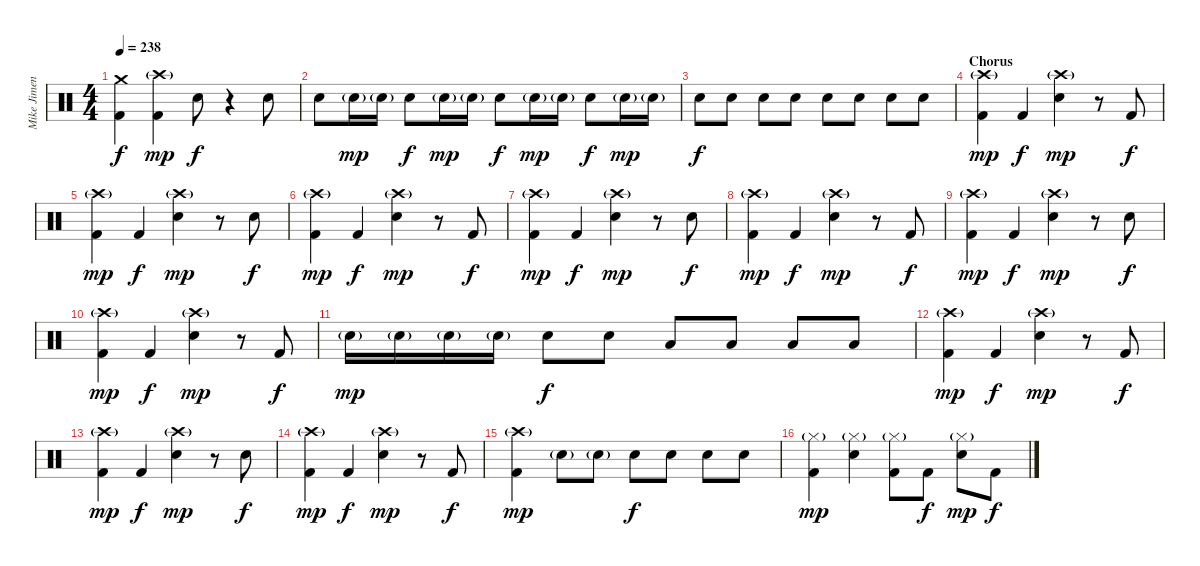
\track ("Mike Jimenez" "Mike Jimen") {instrument percussion}
\staff {score}
\articulation defaults
\ts (4 4)
\tempo 238
\clef neutral
\ks c
("Crash medium (hit)" "Kick (hit) 2").4{dy f} ("Crash high (hit)"{g} "Kick (hit) 2").4{dy mp} "Electric Snare (hit)".8{dy f} r.4 "Electric Snare (hit)".8 |
"Electric Snare (hit)".8 "Electric Snare (hit)"{g}.16{dy mp} "Electric Snare (hit)"{g}.16 "Electric Snare (hit)".8{dy f} "Electric Snare (hit)"{g}.16{dy mp} "Electric Snare (hit)"{g}.16 "Electric Snare (hit)".8{dy f} "Electric Snare (hit)"{g}.16{dy mp} "Electric Snare (hit)"{g}.16 "Electric Snare (hit)".8{dy f} "Electric Snare (hit)"{g}.16{dy mp} "Electric Snare (hit)"{g}.16 |
"Electric Snare (hit)".8{dy f} "Electric Snare (hit)".8 "Electric Snare (hit)".8 "Electric Snare (hit)".8 "Electric Snare (hit)".8 "Electric Snare (hit)".8 "Electric Snare (hit)".8 "Electric Snare (hit)".8 |
\section ("" "Chorus")
("Crash high (hit)"{g} "Kick (hit) 2").4{dy mp} "Kick (hit) 2".4{dy f} ("Crash high (hit)"{g} "Electric Snare (hit)").4{dy mp} r.8 "Kick (hit) 2".8{dy f} |
("Crash high (hit)"{g} "Kick (hit) 2").4{dy mp} "Kick (hit) 2".4{dy f} ("Crash high (hit)"{g} "Electric Snare (hit)").4{dy mp} r.8 "Electric Snare (hit)".8{dy f} |
("Crash high (hit)"{g} "Kick (hit) 2").4{dy mp} "Kick (hit) 2".4{dy f} ("Crash high (hit)"{g} "Electric Snare (hit)").4{dy mp} r.8 "Kick (hit) 2".8{dy f} |
("Crash high (hit)"{g} "Kick (hit) 2").4{dy mp} "Kick (hit) 2".4{dy f} ("Crash high (hit)"{g} "Electric Snare (hit)").4{dy mp} r.8 "Electric Snare (hit)".8{dy f} |
("Crash high (hit)"{g} "Kick (hit) 2").4{dy mp} "Kick (hit) 2".4{dy f} ("Crash high (hit)"{g} "Electric Snare (hit)").4{dy mp} r.8 "Kick (hit) 2".8{dy f} |
("Crash high (hit)"{g} "Kick (hit) 2").4{dy mp} "Kick (hit) 2".4{dy f} ("Crash high (hit)"{g} "Electric Snare (hit)").4{dy mp} r.8 "Electric Snare (hit)".8{dy f} |
("Crash high (hit)"{g} "Kick (hit) 2").4{dy mp} "Kick (hit) 2".4{dy f} ("Crash high (hit)"{g} "Electric Snare (hit)").4{dy mp} r.8 "Kick (hit) 2".8{dy f} |
"Electric Snare (hit)"{g}.16{dy mp} "Electric Snare (hit)"{g}.16 "Electric Snare (hit)"{g}.16 "Electric Snare (hit)"{g}.16 "Electric Snare (hit)".8{dy f} "Electric Snare (hit)".8 "Low Tom (hit)".8 "Low Tom (hit)".8 "Low Floor Tom (hit)".8 "Low Floor Tom (hit)".8 |
("Crash high (hit)"{g} "Kick (hit) 2").4{dy mp} "Kick (hit) 2".4{dy f} ("Crash high (hit)"{g} "Electric Snare (hit)").4{dy mp} r.8 "Kick (hit) 2".8{dy f} |
("Crash high (hit)"{g} "Kick (hit) 2").4{dy mp} "Kick (hit) 2".4{dy f} ("Crash high (hit)"{g} "Electric Snare (hit)").4{dy mp} r.8 "Electric Snare (hit)".8{dy f} |
("Crash high (hit)"{g} "Kick (hit) 2").4{dy mp} "Kick (hit) 2".4{dy f} ("Crash high (hit)"{g} "Electric Snare (hit)").4{dy mp} r.8 "Kick (hit) 2".8{dy f} |
("Crash high (hit)"{g} "Kick (hit) 2").4{dy mp} "Electric Snare (hit)"{g}.8 "Electric Snare (hit)"{g}.8 "Electric Snare (hit)".8{dy f} "Electric Snare (hit)".8 "Electric Snare (hit)".8 "Electric Snare (hit)".8 |
("Hi-Hat (closed)"{g} "Kick (hit) 2").4{dy mp} ("Hi-Hat (closed)"{g} "Electric Snare (hit)").4 ("Hi-Hat (closed)"{g} "Kick (hit) 2").8 "Kick (hit) 2".8{dy f} ("Hi-Hat (closed)"{g} "Electric Snare (hit)").8{dy mp} "Kick (hit) 2".8{dy f}
